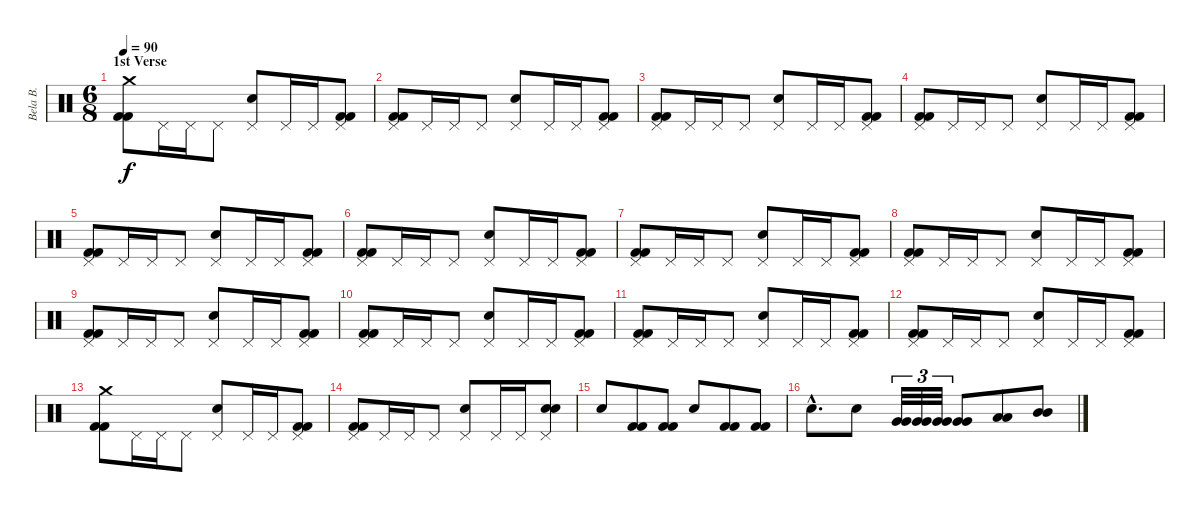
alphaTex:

\track ("Bela B." "Bela B.") {instrument percussion}
\staff {score}
\articulation defaults
\ts (6 8)
\section ("" "1st Verse")
\tempo 90
\clef neutral
\ks aminor
("Crash medium (hit)" "Kick (hit) 2" "Kick (hit) 2").8{dy f} "Pedal Hi-Hat (hit)".16 "Pedal Hi-Hat (hit)".16 "Pedal Hi-Hat (hit)".8 ("Pedal Hi-Hat (hit)" "Snare (hit) 2").8 "Pedal Hi-Hat (hit)".16 "Pedal Hi-Hat (hit)".16 ("Pedal Hi-Hat (hit)" "Kick (hit) 2" "Kick (hit) 2").8 |
("Pedal Hi-Hat (hit)" "Kick (hit) 2" "Kick (hit) 2").8 "Pedal Hi-Hat (hit)".16 "Pedal Hi-Hat (hit)".16 "Pedal Hi-Hat (hit)".8 ("Pedal Hi-Hat (hit)" "Snare (hit) 2").8 "Pedal Hi-Hat (hit)".16 "Pedal Hi-Hat (hit)".16 ("Pedal Hi-Hat (hit)" "Kick (hit) 2" "Kick (hit) 2").8 |
("Pedal Hi-Hat (hit)" "Kick (hit) 2" "Kick (hit) 2").8 "Pedal Hi-Hat (hit)".16 "Pedal Hi-Hat (hit)".16 "Pedal Hi-Hat (hit)".8 ("Pedal Hi-Hat (hit)" "Snare (hit) 2").8 "Pedal Hi-Hat (hit)".16 "Pedal Hi-Hat (hit)".16 ("Pedal Hi-Hat (hit)" "Kick (hit) 2" "Kick (hit) 2").8 |
("Pedal Hi-Hat (hit)" "Kick (hit) 2" "Kick (hit) 2").8 "Pedal Hi-Hat (hit)".16 "Pedal Hi-Hat (hit)".16 "Pedal Hi-Hat (hit)".8 ("Pedal Hi-Hat (hit)" "Snare (hit) 2").8 "Pedal Hi-Hat (hit)".16 "Pedal Hi-Hat (hit)".16 ("Pedal Hi-Hat (hit)" "Kick (hit) 2" "Kick (hit) 2").8 |
("Pedal Hi-Hat (hit)" "Kick (hit) 2" "Kick (hit) 2").8 "Pedal Hi-Hat (hit)".16 "Pedal Hi-Hat (hit)".16 "Pedal Hi-Hat (hit)".8 ("Pedal Hi-Hat (hit)" "Snare (hit) 2").8 "Pedal Hi-Hat (hit)".16 "Pedal Hi-Hat (hit)".16 ("Pedal Hi-Hat (hit)" "Kick (hit) 2" "Kick (hit) 2").8 |
("Pedal Hi-Hat (hit)" "Kick (hit) 2" "Kick (hit) 2").8 "Pedal Hi-Hat (hit)".16 "Pedal Hi-Hat (hit)".16 "Pedal Hi-Hat (hit)".8 ("Pedal Hi-Hat (hit)" "Snare (hit) 2").8 "Pedal Hi-Hat (hit)".16 "Pedal Hi-Hat (hit)".16 ("Pedal Hi-Hat (hit)" "Kick (hit) 2" "Kick (hit) 2").8 |
("Pedal Hi-Hat (hit)" "Kick (hit) 2" "Kick (hit) 2").8 "Pedal Hi-Hat (hit)".16 "Pedal Hi-Hat (hit)".16 "Pedal Hi-Hat (hit)".8 ("Pedal Hi-Hat (hit)" "Snare (hit) 2").8 "Pedal Hi-Hat (hit)".16 "Pedal Hi-Hat (hit)".16 ("Pedal Hi-Hat (hit)" "Kick (hit) 2" "Kick (hit) 2").8 |
("Pedal Hi-Hat (hit)" "Kick (hit) 2" "Kick (hit) 2").8 "Pedal Hi-Hat (hit)".16 "Pedal Hi-Hat (hit)".16 "Pedal Hi-Hat (hit)".8 ("Pedal Hi-Hat (hit)" "Snare (hit) 2").8 "Pedal Hi-Hat (hit)".16 "Pedal Hi-Hat (hit)".16 ("Pedal Hi-Hat (hit)" "Kick (hit) 2" "Kick (hit) 2").8 |
("Pedal Hi-Hat (hit)" "Kick (hit) 2" "Kick (hit) 2").8 "Pedal Hi-Hat (hit)".16 "Pedal Hi-Hat (hit)".16 "Pedal Hi-Hat (hit)".8 ("Pedal Hi-Hat (hit)" "Snare (hit) 2").8 "Pedal Hi-Hat (hit)".16 "Pedal Hi-Hat (hit)".16 ("Pedal Hi-Hat (hit)" "Kick (hit) 2" "Kick (hit) 2").8 |
("Pedal Hi-Hat (hit)" "Kick (hit) 2" "Kick (hit) 2").8 "Pedal Hi-Hat (hit)".16 "Pedal Hi-Hat (hit)".16 "Pedal Hi-Hat (hit)".8 ("Pedal Hi-Hat (hit)" "Snare (hit) 2").8 "Pedal Hi-Hat (hit)".16 "Pedal Hi-Hat (hit)".16 ("Pedal Hi-Hat (hit)" "Kick (hit) 2" "Kick (hit) 2").8 |
("Pedal Hi-Hat (hit)" "Kick (hit) 2" "Kick (hit) 2").8 "Pedal Hi-Hat (hit)".16 "Pedal Hi-Hat (hit)".16 "Pedal Hi-Hat (hit)".8 ("Pedal Hi-Hat (hit)" "Snare (hit) 2").8 "Pedal Hi-Hat (hit)".16 "Pedal Hi-Hat (hit)".16 ("Pedal Hi-Hat (hit)" "Kick (hit) 2" "Kick (hit) 2").8 |
("Pedal Hi-Hat (hit)" "Kick (hit) 2" "Kick (hit) 2").8 "Pedal Hi-Hat (hit)".16 "Pedal Hi-Hat (hit)".16 "Pedal Hi-Hat (hit)".8 ("Pedal Hi-Hat (hit)" "Snare (hit) 2").8 "Pedal Hi-Hat (hit)".16 "Pedal Hi-Hat (hit)".16 ("Pedal Hi-Hat (hit)" "Kick (hit) 2" "Kick (hit) 2").8 |
("Crash medium (hit)" "Kick (hit) 2" "Kick (hit) 2").8 "Pedal Hi-Hat (hit)".16 "Pedal Hi-Hat (hit)".16 "Pedal Hi-Hat (hit)".8 ("Pedal Hi-Hat (hit)" "Snare (hit) 2").8 "Pedal Hi-Hat (hit)".16 "Pedal Hi-Hat (hit)".16 ("Pedal Hi-Hat (hit)" "Kick (hit) 2" "Kick (hit) 2").8 |
("Pedal Hi-Hat (hit)" "Kick (hit) 2" "Kick (hit) 2").8 "Pedal Hi-Hat (hit)".16 "Pedal Hi-Hat (hit)".16 "Pedal Hi-Hat (hit)".8 ("Pedal Hi-Hat (hit)" "Snare (hit) 2").8 "Pedal Hi-Hat (hit)".16 "Pedal Hi-Hat (hit)".16 ("Pedal Hi-Hat (hit)" "Electric Snare (hit)" "Snare (hit) 2").8 |
"Snare (hit) 2".8 ("Kick (hit) 2" "Kick (hit) 2").8 ("Kick (hit) 2" "Kick (hit) 2").8 "Snare (hit) 2".8 ("Kick (hit) 2" "Kick (hit) 2").8 ("Kick (hit) 2" "Kick (hit) 2").8 |
"Snare (hit) 2"{hac}.8{d} "Snare (hit) 2".8 ("Very Low Tom (hit)" "Very Low Tom (hit)").32{tu (3 2)} ("Very Low Tom (hit)" "Very Low Tom (hit)").32{tu (3 2)} ("Very Low Tom (hit)" "Very Low Tom (hit)").32{tu (3 2)} ("Very Low Tom (hit)" "Very Low Tom (hit)").8 ("Low Tom (hit)" "Low Tom (hit)").8 ("Mid Tom (hit)" "Mid Tom (hit)").8
